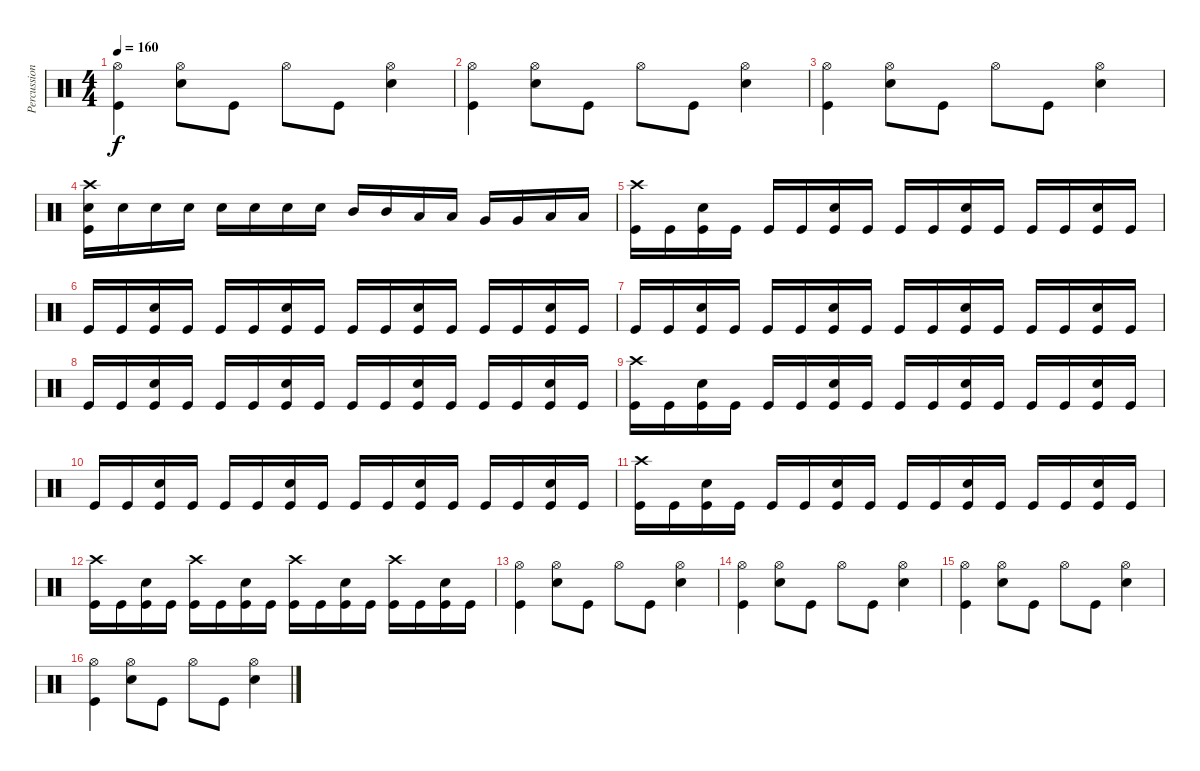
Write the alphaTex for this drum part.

\track ("Percussion" "Percussion") {instrument percussion}
\staff {score}
\articulation defaults
\ts (4 4)
\tempo 160
\clef neutral
\ks c
("Hi-Hat (open)" "Kick (hit)").4{dy f} ("Hi-Hat (open)" "Electric Snare (hit)").8 "Kick (hit)".8 "Hi-Hat (open)".8 "Kick (hit)".8 ("Hi-Hat (open)" "Electric Snare (hit)").4 |
("Hi-Hat (open)" "Kick (hit)").4 ("Hi-Hat (open)" "Electric Snare (hit)").8 "Kick (hit)".8 "Hi-Hat (open)".8 "Kick (hit)".8 ("Hi-Hat (open)" "Electric Snare (hit)").4 |
("Hi-Hat (open)" "Kick (hit)").4 ("Hi-Hat (open)" "Electric Snare (hit)").8 "Kick (hit)".8 "Hi-Hat (open)".8 "Kick (hit)".8 ("Hi-Hat (open)" "Electric Snare (hit)").4 |
("Crash high (hit)" "Electric Snare (hit)" "Kick (hit)").16 "Electric Snare (hit)".16 "Electric Snare (hit)".16 "Electric Snare (hit)".16 "Electric Snare (hit)".16 "Electric Snare (hit)".16 "Electric Snare (hit)".16 "Electric Snare (hit)".16 "Mid Tom (hit)".16 "Mid Tom (hit)".16 "Low Tom (hit)".16 "Low Tom (hit)".16 "Very Low Tom (hit)".16 "Very Low Tom (hit)".16 "Low Floor Tom (hit)".16 "Low Floor Tom (hit)".16 |
("Crash high (hit)" "Kick (hit)").16 "Kick (hit)".16 ("Electric Snare (hit)" "Kick (hit)").16 "Kick (hit)".16 "Kick (hit)".16 "Kick (hit)".16 ("Electric Snare (hit)" "Kick (hit)").16 "Kick (hit)".16 "Kick (hit)".16 "Kick (hit)".16 ("Electric Snare (hit)" "Kick (hit)").16 "Kick (hit)".16 "Kick (hit)".16 "Kick (hit)".16 ("Electric Snare (hit)" "Kick (hit)").16 "Kick (hit)".16 |
"Kick (hit)".16 "Kick (hit)".16 ("Electric Snare (hit)" "Kick (hit)").16 "Kick (hit)".16 "Kick (hit)".16 "Kick (hit)".16 ("Electric Snare (hit)" "Kick (hit)").16 "Kick (hit)".16 "Kick (hit)".16 "Kick (hit)".16 ("Electric Snare (hit)" "Kick (hit)").16 "Kick (hit)".16 "Kick (hit)".16 "Kick (hit)".16 ("Electric Snare (hit)" "Kick (hit)").16 "Kick (hit)".16 |
"Kick (hit)".16 "Kick (hit)".16 ("Electric Snare (hit)" "Kick (hit)").16 "Kick (hit)".16 "Kick (hit)".16 "Kick (hit)".16 ("Electric Snare (hit)" "Kick (hit)").16 "Kick (hit)".16 "Kick (hit)".16 "Kick (hit)".16 ("Electric Snare (hit)" "Kick (hit)").16 "Kick (hit)".16 "Kick (hit)".16 "Kick (hit)".16 ("Electric Snare (hit)" "Kick (hit)").16 "Kick (hit)".16 |
"Kick (hit)".16 "Kick (hit)".16 ("Electric Snare (hit)" "Kick (hit)").16 "Kick (hit)".16 "Kick (hit)".16 "Kick (hit)".16 ("Electric Snare (hit)" "Kick (hit)").16 "Kick (hit)".16 "Kick (hit)".16 "Kick (hit)".16 ("Electric Snare (hit)" "Kick (hit)").16 "Kick (hit)".16 "Kick (hit)".16 "Kick (hit)".16 ("Electric Snare (hit)" "Kick (hit)").16 "Kick (hit)".16 |
("Crash high (hit)" "Kick (hit)").16 "Kick (hit)".16 ("Electric Snare (hit)" "Kick (hit)").16 "Kick (hit)".16 "Kick (hit)".16 "Kick (hit)".16 ("Electric Snare (hit)" "Kick (hit)").16 "Kick (hit)".16 "Kick (hit)".16 "Kick (hit)".16 ("Electric Snare (hit)" "Kick (hit)").16 "Kick (hit)".16 "Kick (hit)".16 "Kick (hit)".16 ("Electric Snare (hit)" "Kick (hit)").16 "Kick (hit)".16 |
"Kick (hit)".16 "Kick (hit)".16 ("Electric Snare (hit)" "Kick (hit)").16 "Kick (hit)".16 "Kick (hit)".16 "Kick (hit)".16 ("Electric Snare (hit)" "Kick (hit)").16 "Kick (hit)".16 "Kick (hit)".16 "Kick (hit)".16 ("Electric Snare (hit)" "Kick (hit)").16 "Kick (hit)".16 "Kick (hit)".16 "Kick (hit)".16 ("Electric Snare (hit)" "Kick (hit)").16 "Kick (hit)".16 |
("Crash high (hit)" "Kick (hit)").16 "Kick (hit)".16 ("Electric Snare (hit)" "Kick (hit)").16 "Kick (hit)".16 "Kick (hit)".16 "Kick (hit)".16 ("Electric Snare (hit)" "Kick (hit)").16 "Kick (hit)".16 "Kick (hit)".16 "Kick (hit)".16 ("Electric Snare (hit)" "Kick (hit)").16 "Kick (hit)".16 "Kick (hit)".16 "Kick (hit)".16 ("Electric Snare (hit)" "Kick (hit)").16 "Kick (hit)".16 |
("Crash high (hit)" "Kick (hit)").16 "Kick (hit)".16 ("Electric Snare (hit)" "Kick (hit)").16 "Kick (hit)".16 ("Crash high (hit)" "Kick (hit)").16 "Kick (hit)".16 ("Electric Snare (hit)" "Kick (hit)").16 "Kick (hit)".16 ("Crash high (hit)" "Kick (hit)").16 "Kick (hit)".16 ("Electric Snare (hit)" "Kick (hit)").16 "Kick (hit)".16 ("Crash high (hit)" "Kick (hit)").16 "Kick (hit)".16 ("Electric Snare (hit)" "Kick (hit)").16 "Kick (hit)".16 |
("Hi-Hat (open)" "Kick (hit)").4 ("Hi-Hat (open)" "Electric Snare (hit)").8 "Kick (hit)".8 "Hi-Hat (open)".8 "Kick (hit)".8 ("Hi-Hat (open)" "Electric Snare (hit)").4 |
("Hi-Hat (open)" "Kick (hit)").4 ("Hi-Hat (open)" "Electric Snare (hit)").8 "Kick (hit)".8 "Hi-Hat (open)".8 "Kick (hit)".8 ("Hi-Hat (open)" "Electric Snare (hit)").4 |
("Hi-Hat (open)" "Kick (hit)").4 ("Hi-Hat (open)" "Electric Snare (hit)").8 "Kick (hit)".8 "Hi-Hat (open)".8 "Kick (hit)".8 ("Hi-Hat (open)" "Electric Snare (hit)").4 |
("Hi-Hat (open)" "Kick (hit)").4 ("Hi-Hat (open)" "Electric Snare (hit)").8 "Kick (hit)".8 "Hi-Hat (open)".8 "Kick (hit)".8 ("Hi-Hat (open)" "Electric Snare (hit)").4
